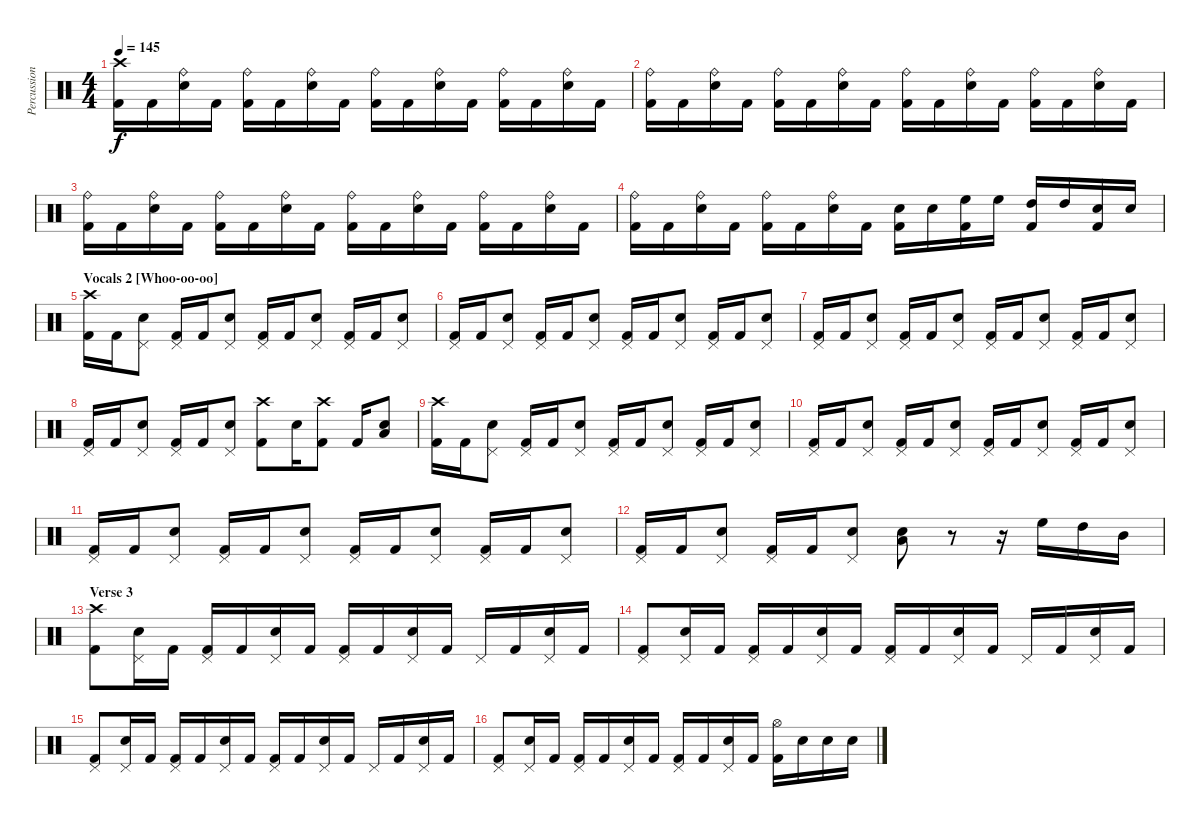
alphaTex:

\track ("Percussion" "Percussion") {instrument percussion}
\staff {score}
\articulation defaults
\ts (4 4)
\tempo 145
\clef neutral
\ks c
("Kick (hit) 2" "Crash high (hit)").16{dy f} "Kick (hit) 2".16 ("Electric Snare (hit)" "Ride (bell)").16 "Kick (hit) 2".16 ("Kick (hit) 2" "Ride (bell)").16 "Kick (hit) 2".16 ("Electric Snare (hit)" "Ride (bell)").16 "Kick (hit) 2".16 ("Kick (hit) 2" "Ride (bell)").16 "Kick (hit) 2".16 ("Electric Snare (hit)" "Ride (bell)").16 "Kick (hit) 2".16 ("Kick (hit) 2" "Ride (bell)").16 "Kick (hit) 2".16 ("Electric Snare (hit)" "Ride (bell)").16 "Kick (hit) 2".16 |
("Kick (hit) 2" "Ride (bell)").16 "Kick (hit) 2".16 ("Electric Snare (hit)" "Ride (bell)").16 "Kick (hit) 2".16 ("Kick (hit) 2" "Ride (bell)").16 "Kick (hit) 2".16 ("Electric Snare (hit)" "Ride (bell)").16 "Kick (hit) 2".16 ("Kick (hit) 2" "Ride (bell)").16 "Kick (hit) 2".16 ("Electric Snare (hit)" "Ride (bell)").16 "Kick (hit) 2".16 ("Kick (hit) 2" "Ride (bell)").16 "Kick (hit) 2".16 ("Electric Snare (hit)" "Ride (bell)").16 "Kick (hit) 2".16 |
("Kick (hit) 2" "Ride (bell)").16 "Kick (hit) 2".16 ("Electric Snare (hit)" "Ride (bell)").16 "Kick (hit) 2".16 ("Kick (hit) 2" "Ride (bell)").16 "Kick (hit) 2".16 ("Electric Snare (hit)" "Ride (bell)").16 "Kick (hit) 2".16 ("Kick (hit) 2" "Ride (bell)").16 "Kick (hit) 2".16 ("Electric Snare (hit)" "Ride (bell)").16 "Kick (hit) 2".16 ("Kick (hit) 2" "Ride (bell)").16 "Kick (hit) 2".16 ("Electric Snare (hit)" "Ride (bell)").16 "Kick (hit) 2".16 |
("Kick (hit) 2" "Ride (bell)").16 "Kick (hit) 2".16 ("Electric Snare (hit)" "Ride (bell)").16 "Kick (hit) 2".16 ("Kick (hit) 2" "Ride (bell)").16 "Kick (hit) 2".16 ("Electric Snare (hit)" "Ride (bell)").16 "Kick (hit) 2".16 ("Electric Snare (hit)" "Kick (hit) 2").16 "Electric Snare (hit)".16 ("High Floor Tom (hit)" "Kick (hit) 2").16 "High Floor Tom (hit)".16 ("High Tom (hit)" "Kick (hit) 2").16 "High Tom (hit)".16 ("Electric Snare (hit)" "Kick (hit) 2").16 "Electric Snare (hit)".16 |
\section ("" "Vocals 2 [Whoo-oo-oo]")
("Kick (hit) 2" "Crash high (hit)").16 "Kick (hit) 2".16 ("Electric Snare (hit)" "Pedal Hi-Hat (hit)").8 ("Kick (hit) 2" "Pedal Hi-Hat (hit)").16 "Kick (hit) 2".16 ("Electric Snare (hit)" "Pedal Hi-Hat (hit)").8 ("Kick (hit) 2" "Pedal Hi-Hat (hit)").16 "Kick (hit) 2".16 ("Electric Snare (hit)" "Pedal Hi-Hat (hit)").8 ("Kick (hit) 2" "Pedal Hi-Hat (hit)").16 "Kick (hit) 2".16 ("Electric Snare (hit)" "Pedal Hi-Hat (hit)").8 |
("Kick (hit) 2" "Pedal Hi-Hat (hit)").16 "Kick (hit) 2".16 ("Electric Snare (hit)" "Pedal Hi-Hat (hit)").8 ("Kick (hit) 2" "Pedal Hi-Hat (hit)").16 "Kick (hit) 2".16 ("Electric Snare (hit)" "Pedal Hi-Hat (hit)").8 ("Kick (hit) 2" "Pedal Hi-Hat (hit)").16 "Kick (hit) 2".16 ("Electric Snare (hit)" "Pedal Hi-Hat (hit)").8 ("Kick (hit) 2" "Pedal Hi-Hat (hit)").16 "Kick (hit) 2".16 ("Electric Snare (hit)" "Pedal Hi-Hat (hit)").8 |
("Kick (hit) 2" "Pedal Hi-Hat (hit)").16 "Kick (hit) 2".16 ("Electric Snare (hit)" "Pedal Hi-Hat (hit)").8 ("Kick (hit) 2" "Pedal Hi-Hat (hit)").16 "Kick (hit) 2".16 ("Electric Snare (hit)" "Pedal Hi-Hat (hit)").8 ("Kick (hit) 2" "Pedal Hi-Hat (hit)").16 "Kick (hit) 2".16 ("Electric Snare (hit)" "Pedal Hi-Hat (hit)").8 ("Kick (hit) 2" "Pedal Hi-Hat (hit)").16 "Kick (hit) 2".16 ("Electric Snare (hit)" "Pedal Hi-Hat (hit)").8 |
("Kick (hit) 2" "Pedal Hi-Hat (hit)").16 "Kick (hit) 2".16 ("Electric Snare (hit)" "Pedal Hi-Hat (hit)").8 ("Kick (hit) 2" "Pedal Hi-Hat (hit)").16 "Kick (hit) 2".16 ("Electric Snare (hit)" "Pedal Hi-Hat (hit)").8 ("Kick (hit) 2" "Crash high (hit)").8 "Electric Snare (hit)".16 ("Kick (hit) 2" "Crash high (hit)").8 "Kick (hit) 2".16 ("Electric Snare (hit)" "Low Tom (hit)").8 |
("Kick (hit) 2" "Crash high (hit)").16 "Kick (hit) 2".16 ("Electric Snare (hit)" "Pedal Hi-Hat (hit)").8 ("Kick (hit) 2" "Pedal Hi-Hat (hit)").16 "Kick (hit) 2".16 ("Electric Snare (hit)" "Pedal Hi-Hat (hit)").8 ("Kick (hit) 2" "Pedal Hi-Hat (hit)").16 "Kick (hit) 2".16 ("Electric Snare (hit)" "Pedal Hi-Hat (hit)").8 ("Kick (hit) 2" "Pedal Hi-Hat (hit)").16 "Kick (hit) 2".16 ("Electric Snare (hit)" "Pedal Hi-Hat (hit)").8 |
("Kick (hit) 2" "Pedal Hi-Hat (hit)").16 "Kick (hit) 2".16 ("Electric Snare (hit)" "Pedal Hi-Hat (hit)").8 ("Kick (hit) 2" "Pedal Hi-Hat (hit)").16 "Kick (hit) 2".16 ("Electric Snare (hit)" "Pedal Hi-Hat (hit)").8 ("Kick (hit) 2" "Pedal Hi-Hat (hit)").16 "Kick (hit) 2".16 ("Electric Snare (hit)" "Pedal Hi-Hat (hit)").8 ("Kick (hit) 2" "Pedal Hi-Hat (hit)").16 "Kick (hit) 2".16 ("Electric Snare (hit)" "Pedal Hi-Hat (hit)").8 |
("Kick (hit) 2" "Pedal Hi-Hat (hit)").16 "Kick (hit) 2".16 ("Electric Snare (hit)" "Pedal Hi-Hat (hit)").8 ("Kick (hit) 2" "Pedal Hi-Hat (hit)").16 "Kick (hit) 2".16 ("Electric Snare (hit)" "Pedal Hi-Hat (hit)").8 ("Kick (hit) 2" "Pedal Hi-Hat (hit)").16 "Kick (hit) 2".16 ("Electric Snare (hit)" "Pedal Hi-Hat (hit)").8 ("Kick (hit) 2" "Pedal Hi-Hat (hit)").16 "Kick (hit) 2".16 ("Electric Snare (hit)" "Pedal Hi-Hat (hit)").8 |
("Kick (hit) 2" "Pedal Hi-Hat (hit)").16 "Kick (hit) 2".16 ("Electric Snare (hit)" "Pedal Hi-Hat (hit)").8 ("Kick (hit) 2" "Pedal Hi-Hat (hit)").16 "Kick (hit) 2".16 ("Electric Snare (hit)" "Pedal Hi-Hat (hit)").8 ("Electric Snare (hit)" "Low Tom (hit)").8 r.8 r.16 "High Floor Tom (hit)".16 "High Tom (hit)".16 "Mid Tom (hit)".16 |
\section ("" "Verse 3")
("Kick (hit) 2" "Crash high (hit)").8 ("Electric Snare (hit)" "Pedal Hi-Hat (hit)").16 "Kick (hit) 2".16 ("Kick (hit) 2" "Pedal Hi-Hat (hit)").16 "Kick (hit) 2".16 ("Electric Snare (hit)" "Pedal Hi-Hat (hit)").16 "Kick (hit) 2".16 ("Kick (hit) 2" "Pedal Hi-Hat (hit)").16 "Kick (hit) 2".16 ("Electric Snare (hit)" "Pedal Hi-Hat (hit)").16 "Kick (hit) 2".16 "Pedal Hi-Hat (hit)".16 "Kick (hit) 2".16 ("Electric Snare (hit)" "Pedal Hi-Hat (hit)").16 "Kick (hit) 2".16 |
("Kick (hit) 2" "Pedal Hi-Hat (hit)").8 ("Electric Snare (hit)" "Pedal Hi-Hat (hit)").16 "Kick (hit) 2".16 ("Kick (hit) 2" "Pedal Hi-Hat (hit)").16 "Kick (hit) 2".16 ("Electric Snare (hit)" "Pedal Hi-Hat (hit)").16 "Kick (hit) 2".16 ("Kick (hit) 2" "Pedal Hi-Hat (hit)").16 "Kick (hit) 2".16 ("Electric Snare (hit)" "Pedal Hi-Hat (hit)").16 "Kick (hit) 2".16 "Pedal Hi-Hat (hit)".16 "Kick (hit) 2".16 ("Electric Snare (hit)" "Pedal Hi-Hat (hit)").16 "Kick (hit) 2".16 |
("Kick (hit) 2" "Pedal Hi-Hat (hit)").8 ("Electric Snare (hit)" "Pedal Hi-Hat (hit)").16 "Kick (hit) 2".16 ("Kick (hit) 2" "Pedal Hi-Hat (hit)").16 "Kick (hit) 2".16 ("Electric Snare (hit)" "Pedal Hi-Hat (hit)").16 "Kick (hit) 2".16 ("Kick (hit) 2" "Pedal Hi-Hat (hit)").16 "Kick (hit) 2".16 ("Electric Snare (hit)" "Pedal Hi-Hat (hit)").16 "Kick (hit) 2".16 "Pedal Hi-Hat (hit)".16 "Kick (hit) 2".16 ("Electric Snare (hit)" "Pedal Hi-Hat (hit)").16 "Kick (hit) 2".16 |
("Kick (hit) 2" "Pedal Hi-Hat (hit)").8 ("Electric Snare (hit)" "Pedal Hi-Hat (hit)").16 "Kick (hit) 2".16 ("Kick (hit) 2" "Pedal Hi-Hat (hit)").16 "Kick (hit) 2".16 ("Electric Snare (hit)" "Pedal Hi-Hat (hit)").16 "Kick (hit) 2".16 ("Kick (hit) 2" "Pedal Hi-Hat (hit)").16 "Kick (hit) 2".16 ("Electric Snare (hit)" "Pedal Hi-Hat (hit)").16 "Kick (hit) 2".16 ("Kick (hit) 2" "Hi-Hat (open)").16 "Electric Snare (hit)".16 "Electric Snare (hit)".16 "Electric Snare (hit)".16
